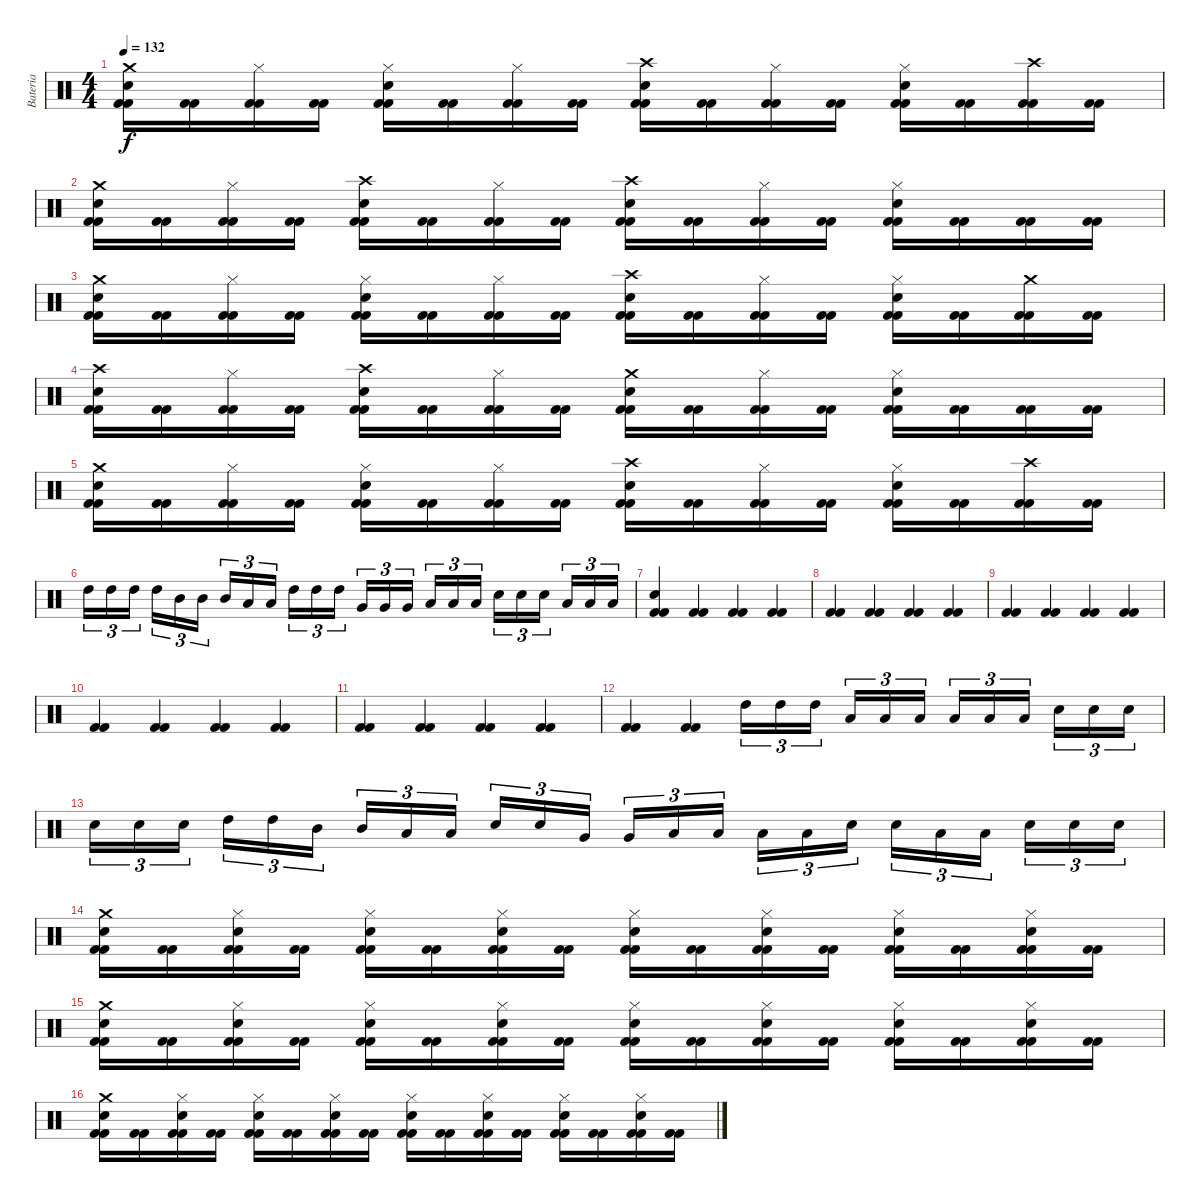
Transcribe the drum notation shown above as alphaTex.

\track ("Bateria" "Bateria") {instrument percussion}
\staff {score}
\articulation defaults
\ts (4 4)
\tempo 132
\clef neutral
\ks c
("Kick (hit) 2" "Kick (hit) 2" "Snare (hit) 2" "Crash medium (hit)").16{dy f} ("Kick (hit) 2" "Kick (hit) 2").16 ("Kick (hit) 2" "Kick (hit) 2" "Hi-Hat (closed)").16 ("Kick (hit) 2" "Kick (hit) 2").16 ("Kick (hit) 2" "Kick (hit) 2" "Snare (hit) 2" "Hi-Hat (closed)").16 ("Kick (hit) 2" "Kick (hit) 2").16 ("Kick (hit) 2" "Kick (hit) 2" "Hi-Hat (closed)").16 ("Kick (hit) 2" "Kick (hit) 2").16 ("Kick (hit) 2" "Kick (hit) 2" "Snare (hit) 2" "Crash high (hit)").16 ("Kick (hit) 2" "Kick (hit) 2").16 ("Kick (hit) 2" "Kick (hit) 2" "Hi-Hat (closed)").16 ("Kick (hit) 2" "Kick (hit) 2").16 ("Kick (hit) 2" "Kick (hit) 2" "Snare (hit) 2" "Hi-Hat (closed)").16 ("Kick (hit) 2" "Kick (hit) 2").16 ("Kick (hit) 2" "Kick (hit) 2" "Crash high (hit)").16 ("Kick (hit) 2" "Kick (hit) 2").16 |
("Kick (hit) 2" "Kick (hit) 2" "Snare (hit) 2" "Crash medium (hit)").16 ("Kick (hit) 2" "Kick (hit) 2").16 ("Kick (hit) 2" "Kick (hit) 2" "Hi-Hat (closed)").16 ("Kick (hit) 2" "Kick (hit) 2").16 ("Kick (hit) 2" "Kick (hit) 2" "Snare (hit) 2" "Crash high (hit)").16 ("Kick (hit) 2" "Kick (hit) 2").16 ("Kick (hit) 2" "Kick (hit) 2" "Hi-Hat (closed)").16 ("Kick (hit) 2" "Kick (hit) 2").16 ("Kick (hit) 2" "Kick (hit) 2" "Snare (hit) 2" "Crash high (hit)").16 ("Kick (hit) 2" "Kick (hit) 2").16 ("Kick (hit) 2" "Kick (hit) 2" "Hi-Hat (closed)").16 ("Kick (hit) 2" "Kick (hit) 2").16 ("Kick (hit) 2" "Kick (hit) 2" "Snare (hit) 2" "Hi-Hat (closed)").16 ("Kick (hit) 2" "Kick (hit) 2").16 ("Kick (hit) 2" "Kick (hit) 2").16 ("Kick (hit) 2" "Kick (hit) 2").16 |
("Kick (hit) 2" "Kick (hit) 2" "Snare (hit) 2" "Crash medium (hit)").16 ("Kick (hit) 2" "Kick (hit) 2").16 ("Kick (hit) 2" "Kick (hit) 2" "Hi-Hat (closed)").16 ("Kick (hit) 2" "Kick (hit) 2").16 ("Kick (hit) 2" "Kick (hit) 2" "Snare (hit) 2" "Hi-Hat (closed)").16 ("Kick (hit) 2" "Kick (hit) 2").16 ("Kick (hit) 2" "Kick (hit) 2" "Hi-Hat (closed)").16 ("Kick (hit) 2" "Kick (hit) 2").16 ("Kick (hit) 2" "Kick (hit) 2" "Snare (hit) 2" "Crash high (hit)").16 ("Kick (hit) 2" "Kick (hit) 2").16 ("Kick (hit) 2" "Kick (hit) 2" "Hi-Hat (closed)").16 ("Kick (hit) 2" "Kick (hit) 2").16 ("Kick (hit) 2" "Kick (hit) 2" "Snare (hit) 2" "Hi-Hat (closed)").16 ("Kick (hit) 2" "Kick (hit) 2").16 ("Kick (hit) 2" "Kick (hit) 2" "Crash medium (hit)").16 ("Kick (hit) 2" "Kick (hit) 2").16 |
("Kick (hit) 2" "Kick (hit) 2" "Snare (hit) 2" "Crash high (hit)").16 ("Kick (hit) 2" "Kick (hit) 2").16 ("Kick (hit) 2" "Kick (hit) 2" "Hi-Hat (closed)").16 ("Kick (hit) 2" "Kick (hit) 2").16 ("Kick (hit) 2" "Kick (hit) 2" "Snare (hit) 2" "Crash high (hit)").16 ("Kick (hit) 2" "Kick (hit) 2").16 ("Kick (hit) 2" "Kick (hit) 2" "Hi-Hat (closed)").16 ("Kick (hit) 2" "Kick (hit) 2").16 ("Kick (hit) 2" "Kick (hit) 2" "Snare (hit) 2" "Crash medium (hit)").16 ("Kick (hit) 2" "Kick (hit) 2").16 ("Kick (hit) 2" "Kick (hit) 2" "Hi-Hat (closed)").16 ("Kick (hit) 2" "Kick (hit) 2").16 ("Kick (hit) 2" "Kick (hit) 2" "Snare (hit) 2" "Hi-Hat (closed)").16 ("Kick (hit) 2" "Kick (hit) 2").16 ("Kick (hit) 2" "Kick (hit) 2").16 ("Kick (hit) 2" "Kick (hit) 2").16 |
("Kick (hit) 2" "Kick (hit) 2" "Snare (hit) 2" "Crash medium (hit)").16 ("Kick (hit) 2" "Kick (hit) 2").16 ("Kick (hit) 2" "Kick (hit) 2" "Hi-Hat (closed)").16 ("Kick (hit) 2" "Kick (hit) 2").16 ("Kick (hit) 2" "Kick (hit) 2" "Snare (hit) 2" "Hi-Hat (closed)").16 ("Kick (hit) 2" "Kick (hit) 2").16 ("Kick (hit) 2" "Kick (hit) 2" "Hi-Hat (closed)").16 ("Kick (hit) 2" "Kick (hit) 2").16 ("Kick (hit) 2" "Kick (hit) 2" "Snare (hit) 2" "Crash high (hit)").16 ("Kick (hit) 2" "Kick (hit) 2").16 ("Kick (hit) 2" "Kick (hit) 2" "Hi-Hat (closed)").16 ("Kick (hit) 2" "Kick (hit) 2").16 ("Kick (hit) 2" "Kick (hit) 2" "Snare (hit) 2" "Hi-Hat (closed)").16 ("Kick (hit) 2" "Kick (hit) 2").16 ("Kick (hit) 2" "Kick (hit) 2" "Crash high (hit)").16 ("Kick (hit) 2" "Kick (hit) 2").16 |
"High Tom (hit)".16{tu (3 2)} "High Tom (hit)".16{tu (3 2)} "High Tom (hit)".16{tu (3 2)} "High Tom (hit)".16{tu (3 2)} "Mid Tom (hit)".16{tu (3 2)} "Mid Tom (hit)".16{tu (3 2)} "Mid Tom (hit)".16{tu (3 2)} "Low Tom (hit)".16{tu (3 2)} "Low Tom (hit)".16{tu (3 2)} "High Tom (hit)".16{tu (3 2)} "High Tom (hit)".16{tu (3 2)} "High Tom (hit)".16{tu (3 2)} "Very Low Tom (hit)".16{tu (3 2)} "Very Low Tom (hit)".16{tu (3 2)} "Very Low Tom (hit)".16{tu (3 2)} "Low Floor Tom (hit)".16{tu (3 2)} "Low Floor Tom (hit)".16{tu (3 2)} "Low Floor Tom (hit)".16{tu (3 2)} "Snare (hit) 2".16{tu (3 2)} "Snare (hit) 2".16{tu (3 2)} "Snare (hit) 2".16{tu (3 2)} "Low Tom (hit)".16{tu (3 2)} "Low Tom (hit)".16{tu (3 2)} "Low Tom (hit)".16{tu (3 2)} |
("Kick (hit) 2" "Kick (hit) 2" "Snare (hit) 2").4 ("Kick (hit) 2" "Kick (hit) 2").4 ("Kick (hit) 2" "Kick (hit) 2").4 ("Kick (hit) 2" "Kick (hit) 2").4 |
("Kick (hit) 2" "Kick (hit) 2").4 ("Kick (hit) 2" "Kick (hit) 2").4 ("Kick (hit) 2" "Kick (hit) 2").4 ("Kick (hit) 2" "Kick (hit) 2").4 |
("Kick (hit) 2" "Kick (hit) 2").4 ("Kick (hit) 2" "Kick (hit) 2").4 ("Kick (hit) 2" "Kick (hit) 2").4 ("Kick (hit) 2" "Kick (hit) 2").4 |
("Kick (hit) 2" "Kick (hit) 2").4 ("Kick (hit) 2" "Kick (hit) 2").4 ("Kick (hit) 2" "Kick (hit) 2").4 ("Kick (hit) 2" "Kick (hit) 2").4 |
("Kick (hit) 2" "Kick (hit) 2").4 ("Kick (hit) 2" "Kick (hit) 2").4 ("Kick (hit) 2" "Kick (hit) 2").4 ("Kick (hit) 2" "Kick (hit) 2").4 |
("Kick (hit) 2" "Kick (hit) 2").4 ("Kick (hit) 2" "Kick (hit) 2").4 "High Tom (hit)".16{tu (3 2)} "High Tom (hit)".16{tu (3 2)} "High Tom (hit)".16{tu (3 2)} "Low Tom (hit)".16{tu (3 2)} "Low Tom (hit)".16{tu (3 2)} "Low Tom (hit)".16{tu (3 2)} "Low Floor Tom (hit)".16{tu (3 2)} "Low Floor Tom (hit)".16{tu (3 2)} "Low Floor Tom (hit)".16{tu (3 2)} "Snare (hit) 2".16{tu (3 2)} "Snare (hit) 2".16{tu (3 2)} "Snare (hit) 2".16{tu (3 2)} |
"Snare (hit) 2".16{tu (3 2)} "Snare (hit) 2".16{tu (3 2)} "Snare (hit) 2".16{tu (3 2)} "High Tom (hit)".16{tu (3 2)} "High Tom (hit)".16{tu (3 2)} "Mid Tom (hit)".16{tu (3 2)} "Mid Tom (hit)".16{tu (3 2)} "Low Tom (hit)".16{tu (3 2)} "Low Tom (hit)".16{tu (3 2)} "Electric Snare (hit)".16{tu (3 2)} "Electric Snare (hit)".16{tu (3 2)} "Very Low Tom (hit)".16{tu (3 2)} "Very Low Tom (hit)".16{tu (3 2)} "Low Floor Tom (hit)".16{tu (3 2)} "Low Floor Tom (hit)".16{tu (3 2)} "Low Tom (hit)".16{tu (3 2)} "Low Tom (hit)".16{tu (3 2)} "Electric Snare (hit)".16{tu (3 2)} "Electric Snare (hit)".16{tu (3 2)} "Low Floor Tom (hit)".16{tu (3 2)} "Low Floor Tom (hit)".16{tu (3 2)} "Snare (hit) 2".16{tu (3 2)} "Snare (hit) 2".16{tu (3 2)} "Snare (hit) 2".16{tu (3 2)} |
("Kick (hit) 2" "Kick (hit) 2" "Snare (hit) 2" "Crash medium (hit)").16 ("Kick (hit) 2" "Kick (hit) 2").16 ("Kick (hit) 2" "Kick (hit) 2" "Snare (hit) 2" "Hi-Hat (closed)").16 ("Kick (hit) 2" "Kick (hit) 2").16 ("Kick (hit) 2" "Kick (hit) 2" "Snare (hit) 2" "Hi-Hat (closed)").16 ("Kick (hit) 2" "Kick (hit) 2").16 ("Kick (hit) 2" "Kick (hit) 2" "Snare (hit) 2" "Hi-Hat (closed)").16 ("Kick (hit) 2" "Kick (hit) 2").16 ("Kick (hit) 2" "Kick (hit) 2" "Snare (hit) 2" "Hi-Hat (closed)").16 ("Kick (hit) 2" "Kick (hit) 2").16 ("Kick (hit) 2" "Kick (hit) 2" "Snare (hit) 2" "Hi-Hat (closed)").16 ("Kick (hit) 2" "Kick (hit) 2").16 ("Kick (hit) 2" "Kick (hit) 2" "Snare (hit) 2" "Hi-Hat (closed)").16 ("Kick (hit) 2" "Kick (hit) 2").16 ("Kick (hit) 2" "Kick (hit) 2" "Snare (hit) 2" "Hi-Hat (closed)").16 ("Kick (hit) 2" "Kick (hit) 2").16 |
("Kick (hit) 2" "Kick (hit) 2" "Snare (hit) 2" "Crash medium (hit)").16 ("Kick (hit) 2" "Kick (hit) 2").16 ("Kick (hit) 2" "Kick (hit) 2" "Snare (hit) 2" "Hi-Hat (closed)").16 ("Kick (hit) 2" "Kick (hit) 2").16 ("Kick (hit) 2" "Kick (hit) 2" "Snare (hit) 2" "Hi-Hat (closed)").16 ("Kick (hit) 2" "Kick (hit) 2").16 ("Kick (hit) 2" "Kick (hit) 2" "Snare (hit) 2" "Hi-Hat (closed)").16 ("Kick (hit) 2" "Kick (hit) 2").16 ("Kick (hit) 2" "Kick (hit) 2" "Snare (hit) 2" "Hi-Hat (closed)").16 ("Kick (hit) 2" "Kick (hit) 2").16 ("Kick (hit) 2" "Kick (hit) 2" "Snare (hit) 2" "Hi-Hat (closed)").16 ("Kick (hit) 2" "Kick (hit) 2").16 ("Kick (hit) 2" "Kick (hit) 2" "Snare (hit) 2" "Hi-Hat (closed)").16 ("Kick (hit) 2" "Kick (hit) 2").16 ("Kick (hit) 2" "Kick (hit) 2" "Snare (hit) 2" "Hi-Hat (closed)").16 ("Kick (hit) 2" "Kick (hit) 2").16 |
("Kick (hit) 2" "Kick (hit) 2" "Snare (hit) 2" "Crash medium (hit)").16 ("Kick (hit) 2" "Kick (hit) 2").16 ("Kick (hit) 2" "Kick (hit) 2" "Snare (hit) 2" "Hi-Hat (closed)").16 ("Kick (hit) 2" "Kick (hit) 2").16 ("Kick (hit) 2" "Kick (hit) 2" "Snare (hit) 2" "Hi-Hat (closed)").16 ("Kick (hit) 2" "Kick (hit) 2").16 ("Kick (hit) 2" "Kick (hit) 2" "Snare (hit) 2" "Hi-Hat (closed)").16 ("Kick (hit) 2" "Kick (hit) 2").16 ("Kick (hit) 2" "Kick (hit) 2" "Snare (hit) 2" "Hi-Hat (closed)").16 ("Kick (hit) 2" "Kick (hit) 2").16 ("Kick (hit) 2" "Kick (hit) 2" "Snare (hit) 2" "Hi-Hat (closed)").16 ("Kick (hit) 2" "Kick (hit) 2").16 ("Kick (hit) 2" "Kick (hit) 2" "Snare (hit) 2" "Hi-Hat (closed)").16 ("Kick (hit) 2" "Kick (hit) 2").16 ("Kick (hit) 2" "Kick (hit) 2" "Snare (hit) 2" "Hi-Hat (closed)").16 ("Kick (hit) 2" "Kick (hit) 2").16
